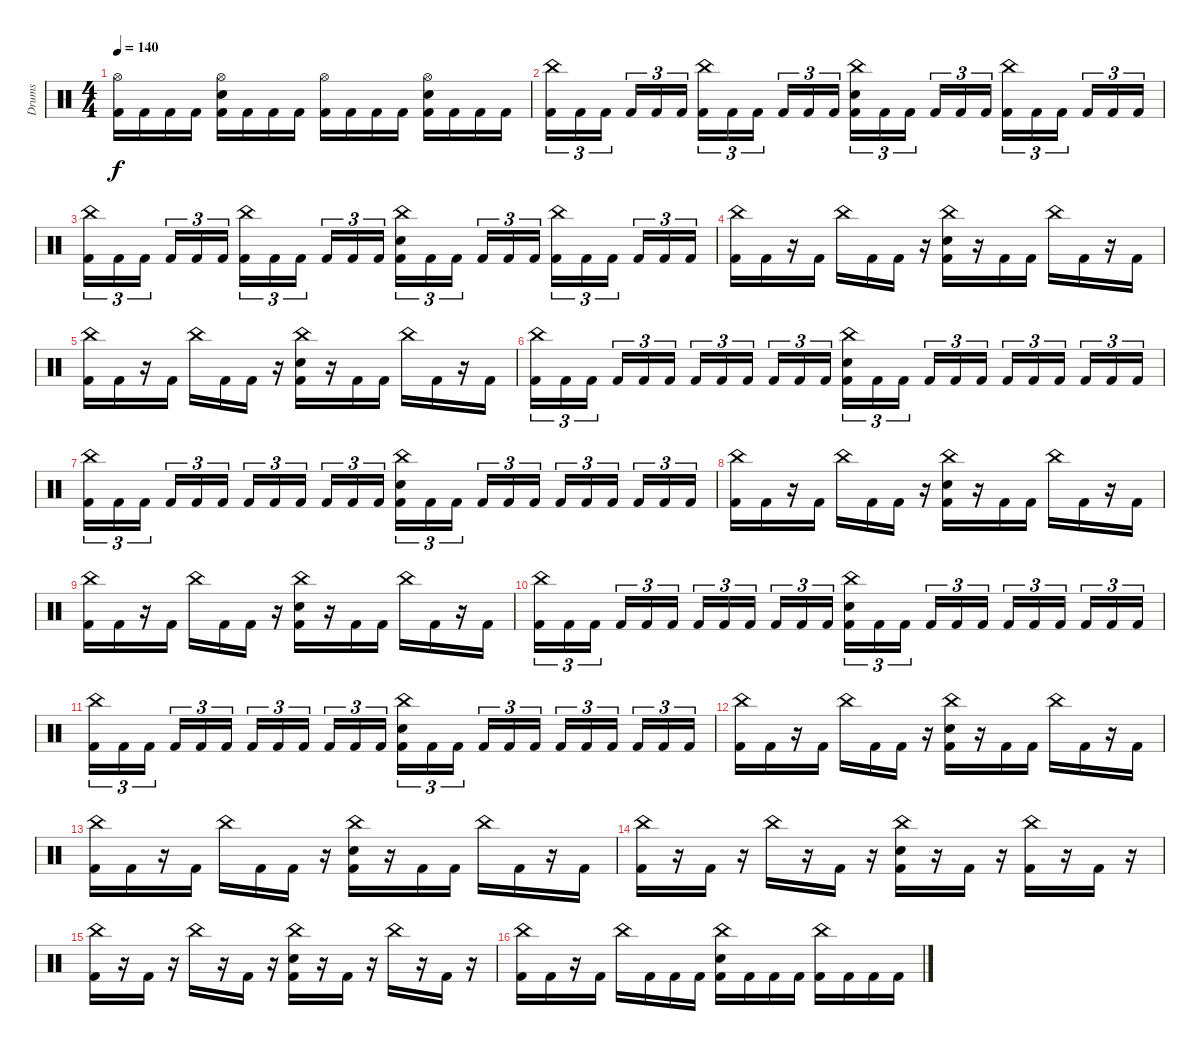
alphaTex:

\track ("Drums" "Drums") {instrument percussion}
\staff {score}
\articulation defaults
\ts (4 4)
\tempo 140
\clef neutral
\ks c
("Hi-Hat (open)" "Kick (hit) 2").16{dy f} "Kick (hit) 2".16 "Kick (hit) 2".16 "Kick (hit) 2".16 ("Hi-Hat (open)" "Snare (hit) 2" "Kick (hit) 2").16 "Kick (hit) 2".16 "Kick (hit) 2".16 "Kick (hit) 2".16 ("Hi-Hat (open)" "Kick (hit) 2").16 "Kick (hit) 2".16 "Kick (hit) 2".16 "Kick (hit) 2".16 ("Hi-Hat (open)" "Snare (hit) 2" "Kick (hit) 2").16 "Kick (hit) 2".16 "Kick (hit) 2".16 "Kick (hit) 2".16 |
("China (hit)" "Kick (hit) 2").16{tu (3 2)} "Kick (hit) 2".16{tu (3 2)} "Kick (hit) 2".16{tu (3 2) beam splitsecondary} "Kick (hit) 2".16{tu (3 2)} "Kick (hit) 2".16{tu (3 2)} "Kick (hit) 2".16{tu (3 2)} ("China (hit)" "Kick (hit) 2").16{tu (3 2)} "Kick (hit) 2".16{tu (3 2)} "Kick (hit) 2".16{tu (3 2) beam splitsecondary} "Kick (hit) 2".16{tu (3 2)} "Kick (hit) 2".16{tu (3 2)} "Kick (hit) 2".16{tu (3 2)} ("China (hit)" "Snare (hit) 2" "Kick (hit) 2").16{tu (3 2)} "Kick (hit) 2".16{tu (3 2)} "Kick (hit) 2".16{tu (3 2) beam splitsecondary} "Kick (hit) 2".16{tu (3 2)} "Kick (hit) 2".16{tu (3 2)} "Kick (hit) 2".16{tu (3 2)} ("China (hit)" "Kick (hit) 2").16{tu (3 2)} "Kick (hit) 2".16{tu (3 2)} "Kick (hit) 2".16{tu (3 2) beam splitsecondary} "Kick (hit) 2".16{tu (3 2)} "Kick (hit) 2".16{tu (3 2)} "Kick (hit) 2".16{tu (3 2)} |
("China (hit)" "Kick (hit) 2").16{tu (3 2)} "Kick (hit) 2".16{tu (3 2)} "Kick (hit) 2".16{tu (3 2) beam splitsecondary} "Kick (hit) 2".16{tu (3 2)} "Kick (hit) 2".16{tu (3 2)} "Kick (hit) 2".16{tu (3 2)} ("China (hit)" "Kick (hit) 2").16{tu (3 2)} "Kick (hit) 2".16{tu (3 2)} "Kick (hit) 2".16{tu (3 2) beam splitsecondary} "Kick (hit) 2".16{tu (3 2)} "Kick (hit) 2".16{tu (3 2)} "Kick (hit) 2".16{tu (3 2)} ("China (hit)" "Snare (hit) 2" "Kick (hit) 2").16{tu (3 2)} "Kick (hit) 2".16{tu (3 2)} "Kick (hit) 2".16{tu (3 2) beam splitsecondary} "Kick (hit) 2".16{tu (3 2)} "Kick (hit) 2".16{tu (3 2)} "Kick (hit) 2".16{tu (3 2)} ("China (hit)" "Kick (hit) 2").16{tu (3 2)} "Kick (hit) 2".16{tu (3 2)} "Kick (hit) 2".16{tu (3 2) beam splitsecondary} "Kick (hit) 2".16{tu (3 2)} "Kick (hit) 2".16{tu (3 2)} "Kick (hit) 2".16{tu (3 2)} |
("China (hit)" "Kick (hit) 2").16 "Kick (hit) 2".16 r.16 "Kick (hit) 2".16 "China (hit)".16 "Kick (hit) 2".16 "Kick (hit) 2".16 r.16 ("China (hit)" "Snare (hit) 2" "Kick (hit) 2").16 r.16 "Kick (hit) 2".16 "Kick (hit) 2".16 "China (hit)".16 "Kick (hit) 2".16 r.16 "Kick (hit) 2".16 |
("China (hit)" "Kick (hit) 2").16 "Kick (hit) 2".16 r.16 "Kick (hit) 2".16 "China (hit)".16 "Kick (hit) 2".16 "Kick (hit) 2".16 r.16 ("China (hit)" "Snare (hit) 2" "Kick (hit) 2").16 r.16 "Kick (hit) 2".16 "Kick (hit) 2".16 "China (hit)".16 "Kick (hit) 2".16 r.16 "Kick (hit) 2".16 |
("China (hit)" "Kick (hit) 2").16{tu (3 2)} "Kick (hit) 2".16{tu (3 2)} "Kick (hit) 2".16{tu (3 2) beam splitsecondary} "Kick (hit) 2".16{tu (3 2)} "Kick (hit) 2".16{tu (3 2)} "Kick (hit) 2".16{tu (3 2)} "Kick (hit) 2".16{tu (3 2)} "Kick (hit) 2".16{tu (3 2)} "Kick (hit) 2".16{tu (3 2) beam splitsecondary} "Kick (hit) 2".16{tu (3 2)} "Kick (hit) 2".16{tu (3 2)} "Kick (hit) 2".16{tu (3 2)} ("China (hit)" "Snare (hit) 2" "Kick (hit) 2").16{tu (3 2)} "Kick (hit) 2".16{tu (3 2)} "Kick (hit) 2".16{tu (3 2) beam splitsecondary} "Kick (hit) 2".16{tu (3 2)} "Kick (hit) 2".16{tu (3 2)} "Kick (hit) 2".16{tu (3 2)} "Kick (hit) 2".16{tu (3 2)} "Kick (hit) 2".16{tu (3 2)} "Kick (hit) 2".16{tu (3 2) beam splitsecondary} "Kick (hit) 2".16{tu (3 2)} "Kick (hit) 2".16{tu (3 2)} "Kick (hit) 2".16{tu (3 2)} |
("China (hit)" "Kick (hit) 2").16{tu (3 2)} "Kick (hit) 2".16{tu (3 2)} "Kick (hit) 2".16{tu (3 2) beam splitsecondary} "Kick (hit) 2".16{tu (3 2)} "Kick (hit) 2".16{tu (3 2)} "Kick (hit) 2".16{tu (3 2)} "Kick (hit) 2".16{tu (3 2)} "Kick (hit) 2".16{tu (3 2)} "Kick (hit) 2".16{tu (3 2) beam splitsecondary} "Kick (hit) 2".16{tu (3 2)} "Kick (hit) 2".16{tu (3 2)} "Kick (hit) 2".16{tu (3 2)} ("China (hit)" "Snare (hit) 2" "Kick (hit) 2").16{tu (3 2)} "Kick (hit) 2".16{tu (3 2)} "Kick (hit) 2".16{tu (3 2) beam splitsecondary} "Kick (hit) 2".16{tu (3 2)} "Kick (hit) 2".16{tu (3 2)} "Kick (hit) 2".16{tu (3 2)} "Kick (hit) 2".16{tu (3 2)} "Kick (hit) 2".16{tu (3 2)} "Kick (hit) 2".16{tu (3 2) beam splitsecondary} "Kick (hit) 2".16{tu (3 2)} "Kick (hit) 2".16{tu (3 2)} "Kick (hit) 2".16{tu (3 2)} |
("China (hit)" "Kick (hit) 2").16 "Kick (hit) 2".16 r.16 "Kick (hit) 2".16 "China (hit)".16 "Kick (hit) 2".16 "Kick (hit) 2".16 r.16 ("China (hit)" "Snare (hit) 2" "Kick (hit) 2").16 r.16 "Kick (hit) 2".16 "Kick (hit) 2".16 "China (hit)".16 "Kick (hit) 2".16 r.16 "Kick (hit) 2".16 |
("China (hit)" "Kick (hit) 2").16 "Kick (hit) 2".16 r.16 "Kick (hit) 2".16 "China (hit)".16 "Kick (hit) 2".16 "Kick (hit) 2".16 r.16 ("China (hit)" "Snare (hit) 2" "Kick (hit) 2").16 r.16 "Kick (hit) 2".16 "Kick (hit) 2".16 "China (hit)".16 "Kick (hit) 2".16 r.16 "Kick (hit) 2".16 |
("China (hit)" "Kick (hit) 2").16{tu (3 2)} "Kick (hit) 2".16{tu (3 2)} "Kick (hit) 2".16{tu (3 2) beam splitsecondary} "Kick (hit) 2".16{tu (3 2)} "Kick (hit) 2".16{tu (3 2)} "Kick (hit) 2".16{tu (3 2)} "Kick (hit) 2".16{tu (3 2)} "Kick (hit) 2".16{tu (3 2)} "Kick (hit) 2".16{tu (3 2) beam splitsecondary} "Kick (hit) 2".16{tu (3 2)} "Kick (hit) 2".16{tu (3 2)} "Kick (hit) 2".16{tu (3 2)} ("China (hit)" "Snare (hit) 2" "Kick (hit) 2").16{tu (3 2)} "Kick (hit) 2".16{tu (3 2)} "Kick (hit) 2".16{tu (3 2) beam splitsecondary} "Kick (hit) 2".16{tu (3 2)} "Kick (hit) 2".16{tu (3 2)} "Kick (hit) 2".16{tu (3 2)} "Kick (hit) 2".16{tu (3 2)} "Kick (hit) 2".16{tu (3 2)} "Kick (hit) 2".16{tu (3 2) beam splitsecondary} "Kick (hit) 2".16{tu (3 2)} "Kick (hit) 2".16{tu (3 2)} "Kick (hit) 2".16{tu (3 2)} |
("China (hit)" "Kick (hit) 2").16{tu (3 2)} "Kick (hit) 2".16{tu (3 2)} "Kick (hit) 2".16{tu (3 2) beam splitsecondary} "Kick (hit) 2".16{tu (3 2)} "Kick (hit) 2".16{tu (3 2)} "Kick (hit) 2".16{tu (3 2)} "Kick (hit) 2".16{tu (3 2)} "Kick (hit) 2".16{tu (3 2)} "Kick (hit) 2".16{tu (3 2) beam splitsecondary} "Kick (hit) 2".16{tu (3 2)} "Kick (hit) 2".16{tu (3 2)} "Kick (hit) 2".16{tu (3 2)} ("China (hit)" "Snare (hit) 2" "Kick (hit) 2").16{tu (3 2)} "Kick (hit) 2".16{tu (3 2)} "Kick (hit) 2".16{tu (3 2) beam splitsecondary} "Kick (hit) 2".16{tu (3 2)} "Kick (hit) 2".16{tu (3 2)} "Kick (hit) 2".16{tu (3 2)} "Kick (hit) 2".16{tu (3 2)} "Kick (hit) 2".16{tu (3 2)} "Kick (hit) 2".16{tu (3 2) beam splitsecondary} "Kick (hit) 2".16{tu (3 2)} "Kick (hit) 2".16{tu (3 2)} "Kick (hit) 2".16{tu (3 2)} |
("China (hit)" "Kick (hit) 2").16 "Kick (hit) 2".16 r.16 "Kick (hit) 2".16 "China (hit)".16 "Kick (hit) 2".16 "Kick (hit) 2".16 r.16 ("China (hit)" "Snare (hit) 2" "Kick (hit) 2").16 r.16 "Kick (hit) 2".16 "Kick (hit) 2".16 "China (hit)".16 "Kick (hit) 2".16 r.16 "Kick (hit) 2".16 |
("China (hit)" "Kick (hit) 2").16 "Kick (hit) 2".16 r.16 "Kick (hit) 2".16 "China (hit)".16 "Kick (hit) 2".16 "Kick (hit) 2".16 r.16 ("China (hit)" "Snare (hit) 2" "Kick (hit) 2").16 r.16 "Kick (hit) 2".16 "Kick (hit) 2".16 "China (hit)".16 "Kick (hit) 2".16 r.16 "Kick (hit) 2".16 |
("China (hit)" "Kick (hit) 2").16 r.16 "Kick (hit) 2".16 r.16 "China (hit)".16 r.16 "Kick (hit) 2".16 r.16 ("China (hit)" "Snare (hit) 2" "Kick (hit) 2").16 r.16 "Kick (hit) 2".16 r.16 ("China (hit)" "Kick (hit) 2").16 r.16 "Kick (hit) 2".16 r.16 |
("China (hit)" "Kick (hit) 2").16 r.16 "Kick (hit) 2".16 r.16 "China (hit)".16 r.16 "Kick (hit) 2".16 r.16 ("China (hit)" "Snare (hit) 2" "Kick (hit) 2").16 r.16 "Kick (hit) 2".16 r.16 "China (hit)".16 r.16 "Kick (hit) 2".16 r.16 |
("China (hit)" "Kick (hit) 2").16 "Kick (hit) 2".16 r.16 "Kick (hit) 2".16 "China (hit)".16 "Kick (hit) 2".16 "Kick (hit) 2".16 "Kick (hit) 2".16 ("China (hit)" "Snare (hit) 2" "Kick (hit) 2").16 "Kick (hit) 2".16 "Kick (hit) 2".16 "Kick (hit) 2".16 ("China (hit)" "Kick (hit) 2").16 "Kick (hit) 2".16 "Kick (hit) 2".16 "Kick (hit) 2".16
